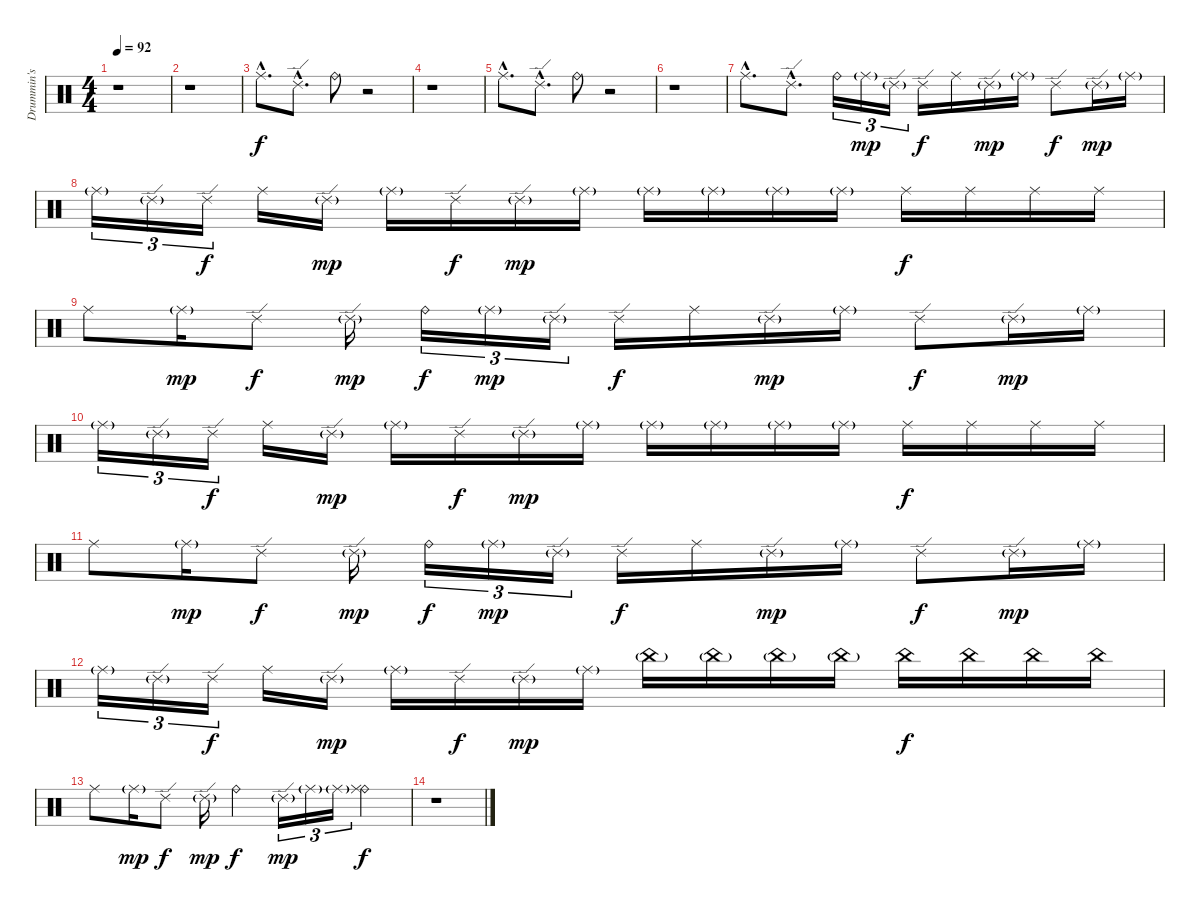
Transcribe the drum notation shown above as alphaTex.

\track ("Drummin's" "Drummin's") {instrument percussion}
\staff {score}
\articulation defaults
\ts (4 4)
\tempo 92
\clef neutral
\ks c
r.1{dy f} |
r.1 |
"Ride (middle)"{hac}.8{d} "Ride (edge) 2"{hac}.8{d} "Ride (bell)".8 r.2 |
r.1 |
"Ride (middle)"{hac}.8{d} "Ride (edge) 2"{hac}.8{d} "Ride (bell)".8 r.2 |
r.1 |
"Ride (middle)"{hac}.8{d} "Ride (edge) 2"{hac}.8{d} "Ride (bell)".16{tu (3 2)} "Ride (middle)"{g}.16{tu (3 2) dy mp} "Ride (edge) 2"{g}.16{tu (3 2)} "Ride (edge) 2".16{dy f} "Ride (middle)".16 "Ride (edge) 2"{g}.16{dy mp} "Ride (middle)"{g}.16 "Ride (edge) 2".8{dy f} "Ride (edge) 2"{g}.16{dy mp} "Ride (middle)"{g}.16 |
"Ride (middle)"{g}.16{tu (3 2)} "Ride (edge) 2"{g}.16{tu (3 2)} "Ride (edge) 2".16{tu (3 2) dy f} "Ride (middle)".16 "Ride (edge) 2"{g}.16{dy mp} "Ride (middle)"{g}.16 "Ride (edge) 2".16{dy f} "Ride (edge) 2"{g}.16{dy mp} "Ride (middle)"{g}.16 "Ride (middle)"{g}.16 "Ride (middle)"{g}.16 "Ride (middle)"{g}.16 "Ride (middle)"{g}.16 "Ride (middle)".16{dy f} "Ride (middle)".16 "Ride (middle)".16 "Ride (middle)".16 |
"Ride (middle)".8 "Ride (middle)"{g}.16{dy mp} "Ride (edge) 2".8{dy f} "Ride (edge) 2"{g}.16{dy mp} "Ride (bell)".16{tu (3 2) dy f} "Ride (middle)"{g}.16{tu (3 2) dy mp} "Ride (edge) 2"{g}.16{tu (3 2)} "Ride (edge) 2".16{dy f} "Ride (middle)".16 "Ride (edge) 2"{g}.16{dy mp} "Ride (middle)"{g}.16 "Ride (edge) 2".8{dy f} "Ride (edge) 2"{g}.16{dy mp} "Ride (middle)"{g}.16 |
"Ride (middle)"{g}.16{tu (3 2)} "Ride (edge) 2"{g}.16{tu (3 2)} "Ride (edge) 2".16{tu (3 2) dy f} "Ride (middle)".16 "Ride (edge) 2"{g}.16{dy mp} "Ride (middle)"{g}.16 "Ride (edge) 2".16{dy f} "Ride (edge) 2"{g}.16{dy mp} "Ride (middle)"{g}.16 "Ride (middle)"{g}.16 "Ride (middle)"{g}.16 "Ride (middle)"{g}.16 "Ride (middle)"{g}.16 "Ride (middle)".16{dy f} "Ride (middle)".16 "Ride (middle)".16 "Ride (middle)".16 |
"Ride (middle)".8 "Ride (middle)"{g}.16{dy mp} "Ride (edge) 2".8{dy f} "Ride (edge) 2"{g}.16{dy mp} "Ride (bell)".16{tu (3 2) dy f} "Ride (middle)"{g}.16{tu (3 2) dy mp} "Ride (edge) 2"{g}.16{tu (3 2)} "Ride (edge) 2".16{dy f} "Ride (middle)".16 "Ride (edge) 2"{g}.16{dy mp} "Ride (middle)"{g}.16 "Ride (edge) 2".8{dy f} "Ride (edge) 2"{g}.16{dy mp} "Ride (middle)"{g}.16 |
"Ride (middle)"{g}.16{tu (3 2)} "Ride (edge) 2"{g}.16{tu (3 2)} "Ride (edge) 2".16{tu (3 2) dy f} "Ride (middle)".16 "Ride (edge) 2"{g}.16{dy mp} "Ride (middle)"{g}.16 "Ride (edge) 2".16{dy f} "Ride (edge) 2"{g}.16{dy mp} "Ride (middle)"{g}.16 "China (hit)"{g}.16 "China (hit)"{g}.16 "China (hit)"{g}.16 "China (hit)"{g}.16 "China (hit)".16{dy f} "China (hit)".16 "China (hit)".16 "China (hit)".16 |
"Ride (middle)".8 "Ride (middle)"{g}.16{dy mp} "Ride (edge) 2".8{dy f} "Ride (edge) 2"{g}.16{dy mp} "Ride (bell)".4{dy f} "Ride (edge) 2"{g}.16{tu (3 2) dy mp} "Ride (middle)"{g}.16{tu (3 2)} "Ride (middle)"{g}.16{tu (3 2)} ("Ride (bell)" "Ride (middle)").4{dy f} |
r.1
